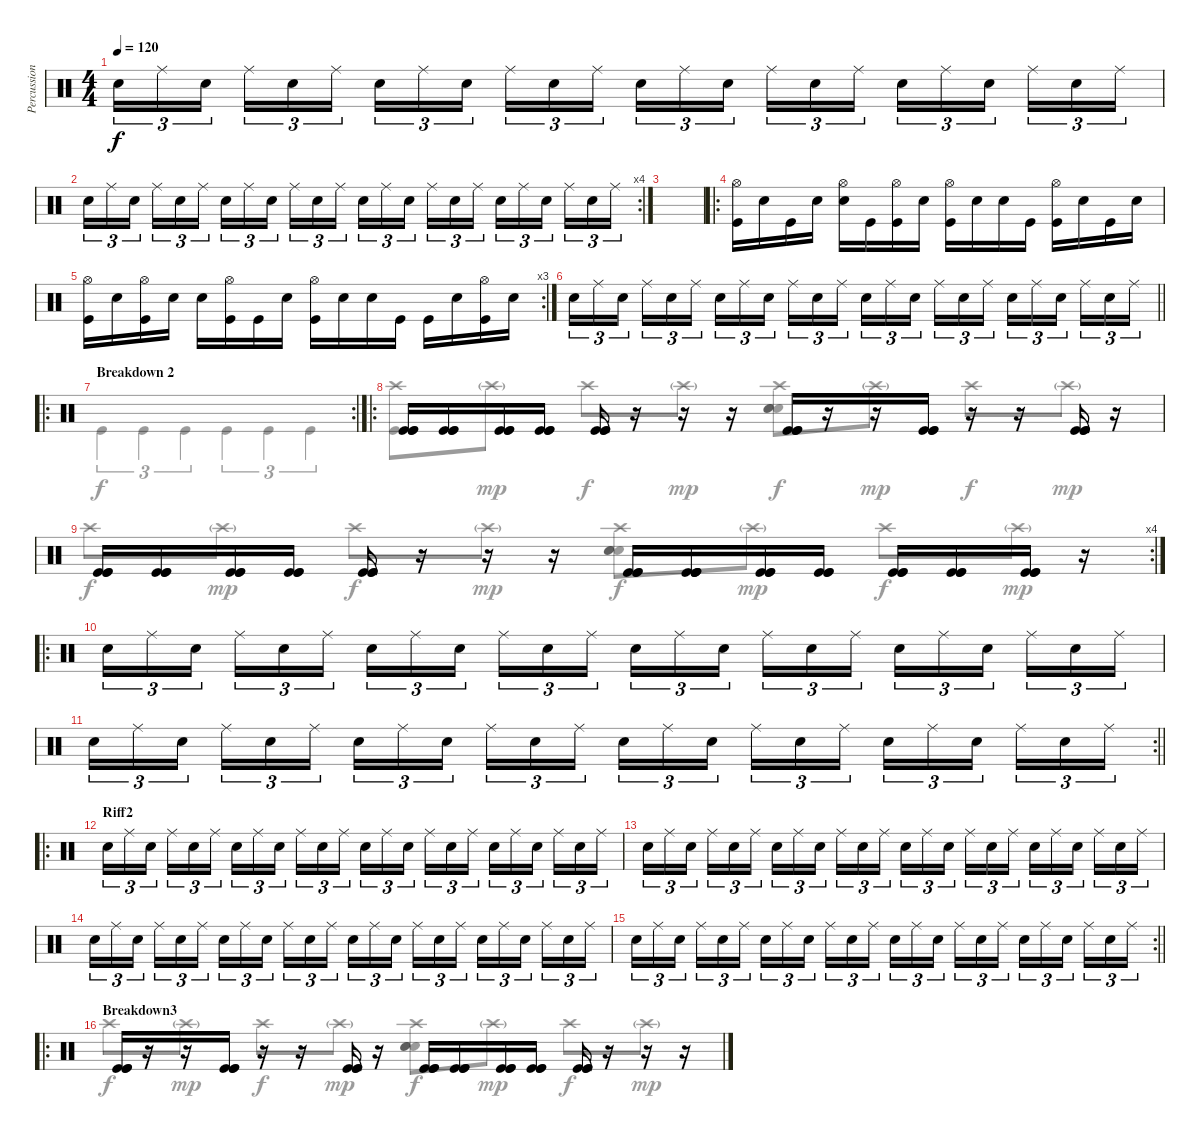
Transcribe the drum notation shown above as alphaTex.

\track ("Percussion" "Percussion") {instrument percussion}
\staff {score}
\articulation defaults
\voice
\ts (4 4)
\tempo 120
\clef neutral
\ks c "Electric Snare (hit)".16{tu (3 2) dy f} "Ride (middle)".16{tu (3 2)} "Electric Snare (hit)".16{tu (3 2) beam splitsecondary} "Ride (middle)".16{tu (3 2)} "Electric Snare (hit)".16{tu (3 2)} "Ride (middle)".16{tu (3 2)} "Electric Snare (hit)".16{tu (3 2)} "Ride (middle)".16{tu (3 2)} "Electric Snare (hit)".16{tu (3 2) beam splitsecondary} "Ride (middle)".16{tu (3 2)} "Electric Snare (hit)".16{tu (3 2)} "Ride (middle)".16{tu (3 2)} "Electric Snare (hit)".16{tu (3 2)} "Ride (middle)".16{tu (3 2)} "Electric Snare (hit)".16{tu (3 2) beam splitsecondary} "Ride (middle)".16{tu (3 2)} "Electric Snare (hit)".16{tu (3 2)} "Ride (middle)".16{tu (3 2)} "Electric Snare (hit)".16{tu (3 2)} "Ride (middle)".16{tu (3 2)} "Electric Snare (hit)".16{tu (3 2) beam splitsecondary} "Ride (middle)".16{tu (3 2)} "Electric Snare (hit)".16{tu (3 2)} "Ride (middle)".16{tu (3 2)}
|
\rc 4 "Electric Snare (hit)".16{tu (3 2)} "Ride (middle)".16{tu (3 2)} "Electric Snare (hit)".16{tu (3 2) beam splitsecondary} "Ride (middle)".16{tu (3 2)} "Electric Snare (hit)".16{tu (3 2)} "Ride (middle)".16{tu (3 2)} "Electric Snare (hit)".16{tu (3 2)} "Ride (middle)".16{tu (3 2)} "Electric Snare (hit)".16{tu (3 2) beam splitsecondary} "Ride (middle)".16{tu (3 2)} "Electric Snare (hit)".16{tu (3 2)} "Ride (middle)".16{tu (3 2)} "Electric Snare (hit)".16{tu (3 2)} "Ride (middle)".16{tu (3 2)} "Electric Snare (hit)".16{tu (3 2) beam splitsecondary} "Ride (middle)".16{tu (3 2)} "Electric Snare (hit)".16{tu (3 2)} "Ride (middle)".16{tu (3 2)} "Electric Snare (hit)".16{tu (3 2)} "Ride (middle)".16{tu (3 2)} "Electric Snare (hit)".16{tu (3 2) beam splitsecondary} "Ride (middle)".16{tu (3 2)} "Electric Snare (hit)".16{tu (3 2)} "Ride (middle)".16{tu (3 2)}
|
|
\ro
("Hi-Hat (open)" "Kick (hit)").16 "Electric Snare (hit)".16 "Kick (hit)".16 "Electric Snare (hit)".16 ("Hi-Hat (open)" "Electric Snare (hit)").16 "Kick (hit)".16 ("Hi-Hat (open)" "Kick (hit)").16 "Electric Snare (hit)".16 ("Hi-Hat (open)" "Kick (hit)").16 "Electric Snare (hit)".16 "Electric Snare (hit)".16 "Kick (hit)".16 ("Hi-Hat (open)" "Kick (hit)").16 "Electric Snare (hit)".16 "Kick (hit)".16 "Electric Snare (hit)".16 |
\rc 3
("Hi-Hat (open)" "Kick (hit)").16 "Electric Snare (hit)".16 ("Hi-Hat (open)" "Kick (hit)").16 "Electric Snare (hit)".16 "Electric Snare (hit)".16 ("Hi-Hat (open)" "Kick (hit)").16 "Kick (hit)".16 "Electric Snare (hit)".16 ("Hi-Hat (open)" "Kick (hit)").16 "Electric Snare (hit)".16 "Electric Snare (hit)".16 "Kick (hit)".16 "Kick (hit)".16 "Electric Snare (hit)".16 ("Hi-Hat (open)" "Kick (hit)").16 "Electric Snare (hit)".16 |
\barLineRight lightlight "Electric Snare (hit)".16{tu (3 2)} "Ride (middle)".16{tu (3 2)} "Electric Snare (hit)".16{tu (3 2) beam splitsecondary} "Ride (middle)".16{tu (3 2)} "Electric Snare (hit)".16{tu (3 2)} "Ride (middle)".16{tu (3 2)} "Electric Snare (hit)".16{tu (3 2)} "Ride (middle)".16{tu (3 2)} "Electric Snare (hit)".16{tu (3 2) beam splitsecondary} "Ride (middle)".16{tu (3 2)} "Electric Snare (hit)".16{tu (3 2)} "Ride (middle)".16{tu (3 2)} "Electric Snare (hit)".16{tu (3 2)} "Ride (middle)".16{tu (3 2)} "Electric Snare (hit)".16{tu (3 2) beam splitsecondary} "Ride (middle)".16{tu (3 2)} "Electric Snare (hit)".16{tu (3 2)} "Ride (middle)".16{tu (3 2)} "Electric Snare (hit)".16{tu (3 2)} "Ride (middle)".16{tu (3 2)} "Electric Snare (hit)".16{tu (3 2) beam splitsecondary} "Ride (middle)".16{tu (3 2)} "Electric Snare (hit)".16{tu (3 2)} "Ride (middle)".16{tu (3 2)}
|
\ro
\rc 2
\section ("" "Breakdown 2")
|
\ro
("Kick (hit)" "Kick (hit)" "Kick (hit)").16 ("Kick (hit)" "Kick (hit)" "Kick (hit)").16 ("Kick (hit)" "Kick (hit)" "Kick (hit)").16 ("Kick (hit)" "Kick (hit)" "Kick (hit)").16 ("Kick (hit)" "Kick (hit)" "Kick (hit)").16 r.16 r.16 r.16 ("Kick (hit)" "Kick (hit)" "Kick (hit)").16 r.16 r.16 ("Kick (hit)" "Kick (hit)" "Kick (hit)").16 r.16 r.16 ("Kick (hit)" "Kick (hit)" "Kick (hit)").16 r.16 |
\rc 4
("Kick (hit)" "Kick (hit)" "Kick (hit)").16 ("Kick (hit)" "Kick (hit)" "Kick (hit)").16 ("Kick (hit)" "Kick (hit)" "Kick (hit)").16 ("Kick (hit)" "Kick (hit)" "Kick (hit)").16 ("Kick (hit)" "Kick (hit)" "Kick (hit)").16 r.16 r.16 r.16 ("Kick (hit)" "Kick (hit)" "Kick (hit)").16 ("Kick (hit)" "Kick (hit)" "Kick (hit)" "Kick (hit)").16 ("Kick (hit)" "Kick (hit)" "Kick (hit)").16 ("Kick (hit)" "Kick (hit)" "Kick (hit)").16 ("Kick (hit)" "Kick (hit)" "Kick (hit)").16 ("Kick (hit)" "Kick (hit)" "Kick (hit)").16 ("Kick (hit)" "Kick (hit)" "Kick (hit)").16 r.16 |
\ro "Electric Snare (hit)".16{tu (3 2)} "Ride (middle)".16{tu (3 2)} "Electric Snare (hit)".16{tu (3 2) beam splitsecondary} "Ride (middle)".16{tu (3 2)} "Electric Snare (hit)".16{tu (3 2)} "Ride (middle)".16{tu (3 2)} "Electric Snare (hit)".16{tu (3 2)} "Ride (middle)".16{tu (3 2)} "Electric Snare (hit)".16{tu (3 2) beam splitsecondary} "Ride (middle)".16{tu (3 2)} "Electric Snare (hit)".16{tu (3 2)} "Ride (middle)".16{tu (3 2)} "Electric Snare (hit)".16{tu (3 2)} "Ride (middle)".16{tu (3 2)} "Electric Snare (hit)".16{tu (3 2) beam splitsecondary} "Ride (middle)".16{tu (3 2)} "Electric Snare (hit)".16{tu (3 2)} "Ride (middle)".16{tu (3 2)} "Electric Snare (hit)".16{tu (3 2)} "Ride (middle)".16{tu (3 2)} "Electric Snare (hit)".16{tu (3 2) beam splitsecondary} "Ride (middle)".16{tu (3 2)} "Electric Snare (hit)".16{tu (3 2)} "Ride (middle)".16{tu (3 2)}
|
\rc 2
\barLineRight lightlight "Electric Snare (hit)".16{tu (3 2)} "Ride (middle)".16{tu (3 2)} "Electric Snare (hit)".16{tu (3 2) beam splitsecondary} "Ride (middle)".16{tu (3 2)} "Electric Snare (hit)".16{tu (3 2)} "Ride (middle)".16{tu (3 2)} "Electric Snare (hit)".16{tu (3 2)} "Ride (middle)".16{tu (3 2)} "Electric Snare (hit)".16{tu (3 2) beam splitsecondary} "Ride (middle)".16{tu (3 2)} "Electric Snare (hit)".16{tu (3 2)} "Ride (middle)".16{tu (3 2)} "Electric Snare (hit)".16{tu (3 2)} "Ride (middle)".16{tu (3 2)} "Electric Snare (hit)".16{tu (3 2) beam splitsecondary} "Ride (middle)".16{tu (3 2)} "Electric Snare (hit)".16{tu (3 2)} "Ride (middle)".16{tu (3 2)} "Electric Snare (hit)".16{tu (3 2)} "Ride (middle)".16{tu (3 2)} "Electric Snare (hit)".16{tu (3 2) beam splitsecondary} "Ride (middle)".16{tu (3 2)} "Electric Snare (hit)".16{tu (3 2)} "Ride (middle)".16{tu (3 2)}
|
\ro
\section ("" "Riff2")
"Electric Snare (hit)".16{tu (3 2)} "Ride (middle)".16{tu (3 2)} "Electric Snare (hit)".16{tu (3 2) beam splitsecondary} "Ride (middle)".16{tu (3 2)} "Electric Snare (hit)".16{tu (3 2)} "Ride (middle)".16{tu (3 2)} "Electric Snare (hit)".16{tu (3 2)} "Ride (middle)".16{tu (3 2)} "Electric Snare (hit)".16{tu (3 2) beam splitsecondary} "Ride (middle)".16{tu (3 2)} "Electric Snare (hit)".16{tu (3 2)} "Ride (middle)".16{tu (3 2)} "Electric Snare (hit)".16{tu (3 2)} "Ride (middle)".16{tu (3 2)} "Electric Snare (hit)".16{tu (3 2) beam splitsecondary} "Ride (middle)".16{tu (3 2)} "Electric Snare (hit)".16{tu (3 2)} "Ride (middle)".16{tu (3 2)} "Electric Snare (hit)".16{tu (3 2)} "Ride (middle)".16{tu (3 2)} "Electric Snare (hit)".16{tu (3 2) beam splitsecondary} "Ride (middle)".16{tu (3 2)} "Electric Snare (hit)".16{tu (3 2)} "Ride (middle)".16{tu (3 2)} |
"Electric Snare (hit)".16{tu (3 2)} "Ride (middle)".16{tu (3 2)} "Electric Snare (hit)".16{tu (3 2) beam splitsecondary} "Ride (middle)".16{tu (3 2)} "Electric Snare (hit)".16{tu (3 2)} "Ride (middle)".16{tu (3 2)} "Electric Snare (hit)".16{tu (3 2)} "Ride (middle)".16{tu (3 2)} "Electric Snare (hit)".16{tu (3 2) beam splitsecondary} "Ride (middle)".16{tu (3 2)} "Electric Snare (hit)".16{tu (3 2)} "Ride (middle)".16{tu (3 2)} "Electric Snare (hit)".16{tu (3 2)} "Ride (middle)".16{tu (3 2)} "Electric Snare (hit)".16{tu (3 2) beam splitsecondary} "Ride (middle)".16{tu (3 2)} "Electric Snare (hit)".16{tu (3 2)} "Ride (middle)".16{tu (3 2)} "Electric Snare (hit)".16{tu (3 2)} "Ride (middle)".16{tu (3 2)} "Electric Snare (hit)".16{tu (3 2) beam splitsecondary} "Ride (middle)".16{tu (3 2)} "Electric Snare (hit)".16{tu (3 2)} "Ride (middle)".16{tu (3 2)} |
"Electric Snare (hit)".16{tu (3 2)} "Ride (middle)".16{tu (3 2)} "Electric Snare (hit)".16{tu (3 2) beam splitsecondary} "Ride (middle)".16{tu (3 2)} "Electric Snare (hit)".16{tu (3 2)} "Ride (middle)".16{tu (3 2)} "Electric Snare (hit)".16{tu (3 2)} "Ride (middle)".16{tu (3 2)} "Electric Snare (hit)".16{tu (3 2) beam splitsecondary} "Ride (middle)".16{tu (3 2)} "Electric Snare (hit)".16{tu (3 2)} "Ride (middle)".16{tu (3 2)} "Electric Snare (hit)".16{tu (3 2)} "Ride (middle)".16{tu (3 2)} "Electric Snare (hit)".16{tu (3 2) beam splitsecondary} "Ride (middle)".16{tu (3 2)} "Electric Snare (hit)".16{tu (3 2)} "Ride (middle)".16{tu (3 2)} "Electric Snare (hit)".16{tu (3 2)} "Ride (middle)".16{tu (3 2)} "Electric Snare (hit)".16{tu (3 2) beam splitsecondary} "Ride (middle)".16{tu (3 2)} "Electric Snare (hit)".16{tu (3 2)} "Ride (middle)".16{tu (3 2)} |
\rc 2
\barLineRight lightlight "Electric Snare (hit)".16{tu (3 2)} "Ride (middle)".16{tu (3 2)} "Electric Snare (hit)".16{tu (3 2) beam splitsecondary} "Ride (middle)".16{tu (3 2)} "Electric Snare (hit)".16{tu (3 2)} "Ride (middle)".16{tu (3 2)} "Electric Snare (hit)".16{tu (3 2)} "Ride (middle)".16{tu (3 2)} "Electric Snare (hit)".16{tu (3 2) beam splitsecondary} "Ride (middle)".16{tu (3 2)} "Electric Snare (hit)".16{tu (3 2)} "Ride (middle)".16{tu (3 2)} "Electric Snare (hit)".16{tu (3 2)} "Ride (middle)".16{tu (3 2)} "Electric Snare (hit)".16{tu (3 2) beam splitsecondary} "Ride (middle)".16{tu (3 2)} "Electric Snare (hit)".16{tu (3 2)} "Ride (middle)".16{tu (3 2)} "Electric Snare (hit)".16{tu (3 2)} "Ride (middle)".16{tu (3 2)} "Electric Snare (hit)".16{tu (3 2) beam splitsecondary} "Ride (middle)".16{tu (3 2)} "Electric Snare (hit)".16{tu (3 2)} "Ride (middle)".16{tu (3 2)}
|
\ro
\section ("" "Breakdown3")
("Kick (hit)" "Kick (hit)" "Kick (hit)").16 r.16 r.16 ("Kick (hit)" "Kick (hit)" "Kick (hit)").16 r.16 r.16 ("Kick (hit)" "Kick (hit)" "Kick (hit)").16 r.16 ("Kick (hit)" "Kick (hit)" "Kick (hit)").16 ("Kick (hit)" "Kick (hit)" "Kick (hit)").16 ("Kick (hit)" "Kick (hit)" "Kick (hit)").16 ("Kick (hit)" "Kick (hit)" "Kick (hit)").16 ("Kick (hit)" "Kick (hit)" "Kick (hit)").16 r.16 r.16 r.16
\voice
\clef neutral
\ottava regular
\simile none
\ks c
|
|
|
|
|
\barLineRight lightlight
|
"Kick (hit)".4{tu (3 2)} "Kick (hit)".4{tu (3 2)} "Kick (hit)".4{tu (3 2)} "Kick (hit)".4{tu (3 2)} "Kick (hit)".4{tu (3 2)} "Kick (hit)".4{tu (3 2)} |
("Crash high (hit)" "Kick (hit)").8 "Crash high (hit)"{g}.8{dy mp} "Crash high (hit)".8{dy f} "Crash high (hit)"{g}.8{dy mp} ("Crash high (hit)" "Electric Snare (hit)" "Electric Snare (hit)" "Electric Snare (hit)").8{dy f} "Crash high (hit)"{g}.8{dy mp} "Crash high (hit)".8{dy f} "Crash high (hit)"{g}.8{dy mp} |
"Crash high (hit)".8{dy f} "Crash high (hit)"{g}.8{dy mp} "Crash high (hit)".8{dy f} "Crash high (hit)"{g}.8{dy mp} ("Crash high (hit)" "Electric Snare (hit)" "Electric Snare (hit)" "Electric Snare (hit)").8{dy f} "Crash high (hit)"{g}.8{dy mp} "Crash high (hit)".8{dy f} "Crash high (hit)"{g}.8{dy mp} |
|
\barLineRight lightlight
|
|
|
|
\barLineRight lightlight
|
"Crash high (hit)".8{dy f} "Crash high (hit)"{g}.8{dy mp} "Crash high (hit)".8{dy f} "Crash high (hit)"{g}.8{dy mp} ("Crash high (hit)" "Electric Snare (hit)" "Electric Snare (hit)" "Electric Snare (hit)").8{dy f} "Crash high (hit)"{g}.8{dy mp} "Crash high (hit)".8{dy f} "Crash high (hit)"{g}.8{dy mp}
